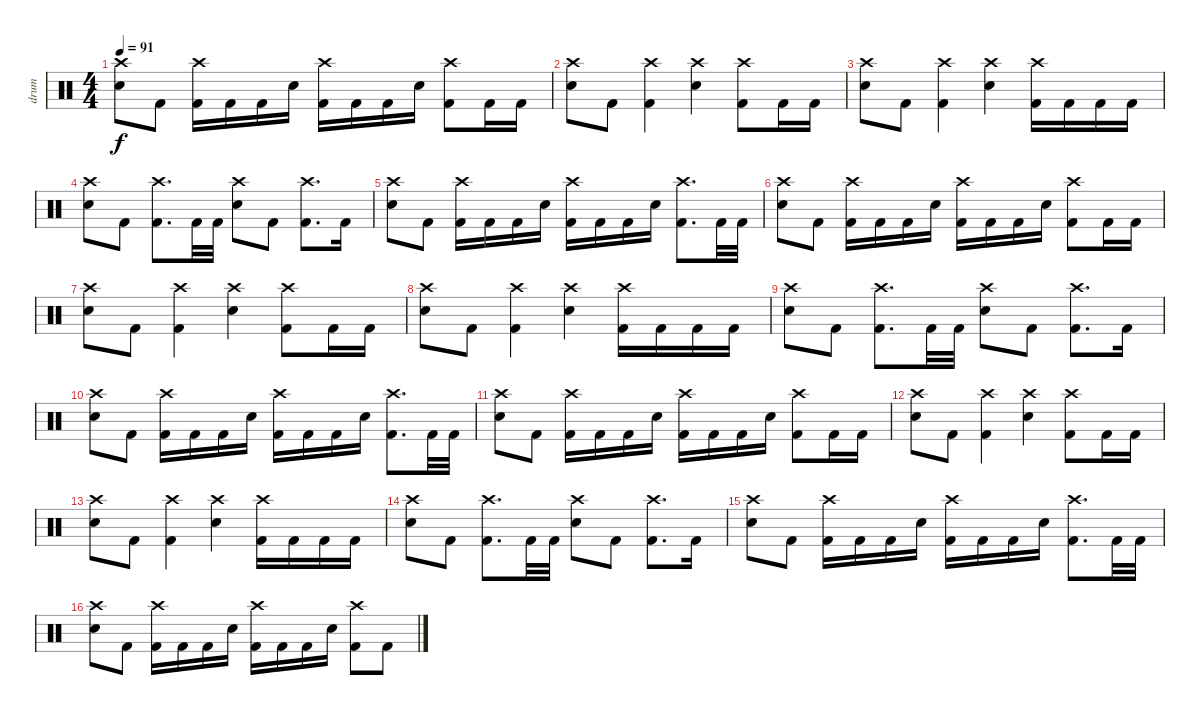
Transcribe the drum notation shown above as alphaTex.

\track ("drum" "drum") {instrument percussion}
\staff {score}
\articulation defaults
\ts (4 4)
\tempo 91
\clef neutral
\ks c
("Crash high (hit)" "Electric Snare (hit)").8{dy f} "Kick (hit) 2".8 ("Crash high (hit)" "Kick (hit) 2").16 "Kick (hit) 2".16 "Kick (hit) 2".16 "Electric Snare (hit)".16 ("Crash high (hit)" "Kick (hit) 2").16 "Kick (hit) 2".16 "Kick (hit) 2".16 "Electric Snare (hit)".16 ("Crash high (hit)" "Kick (hit) 2").8 "Kick (hit) 2".16 "Kick (hit) 2".16 |
("Crash high (hit)" "Electric Snare (hit)").8 "Kick (hit) 2".8 ("Crash high (hit)" "Kick (hit) 2").4 ("Crash high (hit)" "Electric Snare (hit)").4 ("Crash high (hit)" "Kick (hit) 2").8 "Kick (hit) 2".16 "Kick (hit) 2".16 |
("Crash high (hit)" "Electric Snare (hit)").8 "Kick (hit) 2".8 ("Crash high (hit)" "Kick (hit) 2").4 ("Crash high (hit)" "Electric Snare (hit)").4 ("Crash high (hit)" "Kick (hit) 2").16 "Kick (hit) 2".16 "Kick (hit) 2".16 "Kick (hit) 2".16 |
("Crash high (hit)" "Electric Snare (hit)").8 "Kick (hit) 2".8 ("Crash high (hit)" "Kick (hit) 2").8{d} "Kick (hit) 2".32 "Kick (hit) 2".32 ("Crash high (hit)" "Electric Snare (hit)").8 "Kick (hit) 2".8 ("Crash high (hit)" "Kick (hit) 2").8{d} "Kick (hit) 2".16 |
("Crash high (hit)" "Electric Snare (hit)").8 "Kick (hit) 2".8 ("Crash high (hit)" "Kick (hit) 2").16 "Kick (hit) 2".16 "Kick (hit) 2".16 "Electric Snare (hit)".16 ("Crash high (hit)" "Kick (hit) 2").16 "Kick (hit) 2".16 "Kick (hit) 2".16 "Electric Snare (hit)".16 ("Crash high (hit)" "Kick (hit) 2").8{d} "Kick (hit) 2".32 "Kick (hit) 2".32 |
("Crash high (hit)" "Electric Snare (hit)").8 "Kick (hit) 2".8 ("Crash high (hit)" "Kick (hit) 2").16 "Kick (hit) 2".16 "Kick (hit) 2".16 "Electric Snare (hit)".16 ("Crash high (hit)" "Kick (hit) 2").16 "Kick (hit) 2".16 "Kick (hit) 2".16 "Electric Snare (hit)".16 ("Crash high (hit)" "Kick (hit) 2").8 "Kick (hit) 2".16 "Kick (hit) 2".16 |
("Crash high (hit)" "Electric Snare (hit)").8 "Kick (hit) 2".8 ("Crash high (hit)" "Kick (hit) 2").4 ("Crash high (hit)" "Electric Snare (hit)").4 ("Crash high (hit)" "Kick (hit) 2").8 "Kick (hit) 2".16 "Kick (hit) 2".16 |
("Crash high (hit)" "Electric Snare (hit)").8 "Kick (hit) 2".8 ("Crash high (hit)" "Kick (hit) 2").4 ("Crash high (hit)" "Electric Snare (hit)").4 ("Crash high (hit)" "Kick (hit) 2").16 "Kick (hit) 2".16 "Kick (hit) 2".16 "Kick (hit) 2".16 |
("Crash high (hit)" "Electric Snare (hit)").8 "Kick (hit) 2".8 ("Crash high (hit)" "Kick (hit) 2").8{d} "Kick (hit) 2".32 "Kick (hit) 2".32 ("Crash high (hit)" "Electric Snare (hit)").8 "Kick (hit) 2".8 ("Crash high (hit)" "Kick (hit) 2").8{d} "Kick (hit) 2".16 |
("Crash high (hit)" "Electric Snare (hit)").8 "Kick (hit) 2".8 ("Crash high (hit)" "Kick (hit) 2").16 "Kick (hit) 2".16 "Kick (hit) 2".16 "Electric Snare (hit)".16 ("Crash high (hit)" "Kick (hit) 2").16 "Kick (hit) 2".16 "Kick (hit) 2".16 "Electric Snare (hit)".16 ("Crash high (hit)" "Kick (hit) 2").8{d} "Kick (hit) 2".32 "Kick (hit) 2".32 |
("Crash high (hit)" "Electric Snare (hit)").8 "Kick (hit) 2".8 ("Crash high (hit)" "Kick (hit) 2").16 "Kick (hit) 2".16 "Kick (hit) 2".16 "Electric Snare (hit)".16 ("Crash high (hit)" "Kick (hit) 2").16 "Kick (hit) 2".16 "Kick (hit) 2".16 "Electric Snare (hit)".16 ("Crash high (hit)" "Kick (hit) 2").8 "Kick (hit) 2".16 "Kick (hit) 2".16 |
("Crash high (hit)" "Electric Snare (hit)").8 "Kick (hit) 2".8 ("Crash high (hit)" "Kick (hit) 2").4 ("Crash high (hit)" "Electric Snare (hit)").4 ("Crash high (hit)" "Kick (hit) 2").8 "Kick (hit) 2".16 "Kick (hit) 2".16 |
("Crash high (hit)" "Electric Snare (hit)").8 "Kick (hit) 2".8 ("Crash high (hit)" "Kick (hit) 2").4 ("Crash high (hit)" "Electric Snare (hit)").4 ("Crash high (hit)" "Kick (hit) 2").16 "Kick (hit) 2".16 "Kick (hit) 2".16 "Kick (hit) 2".16 |
("Crash high (hit)" "Electric Snare (hit)").8 "Kick (hit) 2".8 ("Crash high (hit)" "Kick (hit) 2").8{d} "Kick (hit) 2".32 "Kick (hit) 2".32 ("Crash high (hit)" "Electric Snare (hit)").8 "Kick (hit) 2".8 ("Crash high (hit)" "Kick (hit) 2").8{d} "Kick (hit) 2".16 |
("Crash high (hit)" "Electric Snare (hit)").8 "Kick (hit) 2".8 ("Crash high (hit)" "Kick (hit) 2").16 "Kick (hit) 2".16 "Kick (hit) 2".16 "Electric Snare (hit)".16 ("Crash high (hit)" "Kick (hit) 2").16 "Kick (hit) 2".16 "Kick (hit) 2".16 "Electric Snare (hit)".16 ("Crash high (hit)" "Kick (hit) 2").8{d} "Kick (hit) 2".32 "Kick (hit) 2".32 |
("Crash high (hit)" "Electric Snare (hit)").8 "Kick (hit) 2".8 ("Crash high (hit)" "Kick (hit) 2").16 "Kick (hit) 2".16 "Kick (hit) 2".16 "Electric Snare (hit)".16 ("Crash high (hit)" "Kick (hit) 2").16 "Kick (hit) 2".16 "Kick (hit) 2".16 "Electric Snare (hit)".16 ("Crash high (hit)" "Kick (hit) 2").8 "Kick (hit) 2".8
